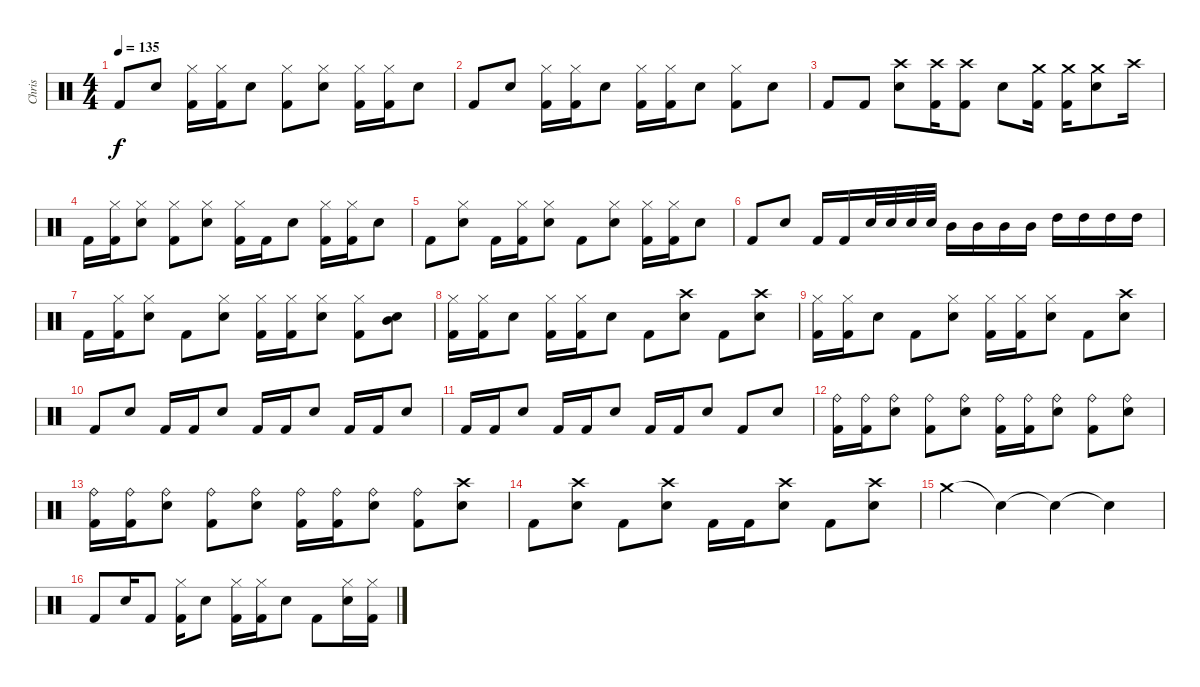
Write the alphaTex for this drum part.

\track ("Chris" "Chris") {instrument percussion}
\staff {score}
\articulation defaults
\ts (4 4)
\tempo 135
\clef neutral
\ks c "Kick (hit) 2".8{dy f} "Snare (hit) 2".8
("Hi-Hat (closed)" "Kick (hit) 2").16 ("Hi-Hat (closed)" "Kick (hit) 2").16 "Snare (hit) 2".8 ("Hi-Hat (closed)" "Kick (hit) 2").8 ("Hi-Hat (closed)" "Snare (hit) 2").8 ("Hi-Hat (closed)" "Kick (hit) 2").16 ("Hi-Hat (closed)" "Kick (hit) 2").16 "Snare (hit) 2".8 |
"Kick (hit) 2".8 "Snare (hit) 2".8 ("Hi-Hat (closed)" "Kick (hit) 2").16 ("Hi-Hat (closed)" "Kick (hit) 2").16 "Snare (hit) 2".8 ("Hi-Hat (closed)" "Kick (hit) 2").16 ("Hi-Hat (closed)" "Kick (hit) 2").16 "Snare (hit) 2".8 ("Hi-Hat (closed)" "Kick (hit) 2").8 "Snare (hit) 2".8 |
"Kick (hit) 2".8 "Kick (hit) 2".8 ("Crash high (hit)" "Snare (hit) 2").8 ("Crash high (hit)" "Kick (hit) 2").16 ("Crash high (hit)" "Kick (hit) 2").8 "Snare (hit) 2".8 ("Crash medium (hit)" "Kick (hit) 2").16 ("Crash medium (hit)" "Kick (hit) 2").16 ("Crash medium (hit)" "Snare (hit) 2").8 "Crash high (hit)".16 |
"Kick (hit) 2".16 ("Hi-Hat (closed)" "Kick (hit) 2").16 ("Hi-Hat (closed)" "Snare (hit) 2").8 ("Hi-Hat (closed)" "Kick (hit) 2").8 ("Hi-Hat (closed)" "Snare (hit) 2").8 ("Hi-Hat (closed)" "Kick (hit) 2").16 "Kick (hit) 2".16 "Snare (hit) 2".8 ("Hi-Hat (closed)" "Kick (hit) 2").16 ("Hi-Hat (closed)" "Kick (hit) 2").16 "Snare (hit) 2".8 |
"Kick (hit) 2".8 ("Hi-Hat (closed)" "Snare (hit) 2").8 "Kick (hit) 2".16 ("Hi-Hat (closed)" "Kick (hit) 2").16 ("Hi-Hat (closed)" "Snare (hit) 2").8 "Kick (hit) 2".8 ("Hi-Hat (closed)" "Snare (hit) 2").8 ("Hi-Hat (closed)" "Kick (hit) 2").16 ("Hi-Hat (closed)" "Kick (hit) 2").16 "Snare (hit) 2".8 |
"Kick (hit) 2".8 "Snare (hit) 2".8 "Kick (hit) 2".16 "Kick (hit) 2".16 "Snare (hit) 2".32 "Snare (hit) 2".32 "Snare (hit) 2".32 "Snare (hit) 2".32 "Mid Tom (hit)".16 "Mid Tom (hit)".16 "Mid Tom (hit)".16 "Mid Tom (hit)".16 "High Tom (hit)".16 "High Tom (hit)".16 "High Tom (hit)".16 "High Tom (hit)".16 |
"Kick (hit) 2".16 ("Hi-Hat (closed)" "Kick (hit) 2").16 ("Hi-Hat (closed)" "Snare (hit) 2").8 "Kick (hit) 2".8 ("Hi-Hat (closed)" "Snare (hit) 2").8 ("Hi-Hat (closed)" "Kick (hit) 2").16 ("Hi-Hat (closed)" "Kick (hit) 2").16 ("Hi-Hat (closed)" "Snare (hit) 2").8 ("Hi-Hat (closed)" "Kick (hit) 2").8 ("Mid Tom (hit)" "Snare (hit) 2").8 |
("Hi-Hat (closed)" "Kick (hit) 2").16 ("Hi-Hat (closed)" "Kick (hit) 2").16 "Snare (hit) 2".8 ("Hi-Hat (closed)" "Kick (hit) 2").16 ("Hi-Hat (closed)" "Kick (hit) 2").16 "Snare (hit) 2".8 "Kick (hit) 2".8 ("Crash high (hit)" "Snare (hit) 2").8 "Kick (hit) 2".8 ("Crash high (hit)" "Snare (hit) 2").8 |
("Hi-Hat (closed)" "Kick (hit) 2").16 ("Hi-Hat (closed)" "Kick (hit) 2").16 "Snare (hit) 2".8 "Kick (hit) 2".8 ("Hi-Hat (closed)" "Snare (hit) 2").8 ("Hi-Hat (closed)" "Kick (hit) 2").16 ("Hi-Hat (closed)" "Kick (hit) 2").16 ("Hi-Hat (closed)" "Snare (hit) 2").8 "Kick (hit) 2".8 ("Crash high (hit)" "Snare (hit) 2").8 |
"Kick (hit) 2".8 "Snare (hit) 2".8 "Kick (hit) 2".16 "Kick (hit) 2".16 "Snare (hit) 2".8 "Kick (hit) 2".16 "Kick (hit) 2".16 "Snare (hit) 2".8 "Kick (hit) 2".16 "Kick (hit) 2".16 "Snare (hit) 2".8 |
"Kick (hit) 2".16 "Kick (hit) 2".16 "Snare (hit) 2".8 "Kick (hit) 2".16 "Kick (hit) 2".16 "Snare (hit) 2".8 "Kick (hit) 2".16 "Kick (hit) 2".16 "Snare (hit) 2".8 "Kick (hit) 2".8 "Snare (hit) 2".8 |
("Ride (bell)" "Kick (hit) 2").16 ("Ride (bell)" "Kick (hit) 2").16 ("Ride (bell)" "Snare (hit) 2").8 ("Ride (bell)" "Kick (hit) 2").8 ("Ride (bell)" "Snare (hit) 2").8 ("Ride (bell)" "Kick (hit) 2").16 ("Ride (bell)" "Kick (hit) 2").16 ("Ride (bell)" "Snare (hit) 2").8 ("Ride (bell)" "Kick (hit) 2").8 ("Ride (bell)" "Snare (hit) 2").8 |
("Ride (bell)" "Kick (hit) 2").16 ("Ride (bell)" "Kick (hit) 2").16 ("Ride (bell)" "Snare (hit) 2").8 ("Ride (bell)" "Kick (hit) 2").8 ("Ride (bell)" "Snare (hit) 2").8 ("Ride (bell)" "Kick (hit) 2").16 ("Ride (bell)" "Kick (hit) 2").16 ("Ride (bell)" "Snare (hit) 2").8 ("Ride (bell)" "Kick (hit) 2").8 ("Crash high (hit)" "Snare (hit) 2").8 |
"Kick (hit) 2".8 ("Snare (hit) 2" "Crash high (hit)").8 "Kick (hit) 2".8 ("Snare (hit) 2" "Crash high (hit)").8 "Kick (hit) 2".16 "Kick (hit) 2".16 ("Snare (hit) 2" "Crash high (hit)").8 "Kick (hit) 2".8 ("Snare (hit) 2" "Crash high (hit)").8 |
"Crash medium (hit)".4 "Snare (hit)"{t}.4 "Snare (hit)"{t}.4 "Snare (hit)"{t}.4 |
"Kick (hit) 2".8 "Snare (hit) 2".16 "Kick (hit) 2".8 ("Hi-Hat (closed)" "Kick (hit) 2").16 "Snare (hit) 2".8 ("Hi-Hat (closed)" "Kick (hit) 2").16 ("Hi-Hat (closed)" "Kick (hit) 2").16 "Snare (hit) 2".8 "Kick (hit) 2".8 ("Hi-Hat (closed)" "Snare (hit) 2").16 ("Hi-Hat (closed)" "Kick (hit) 2").16
